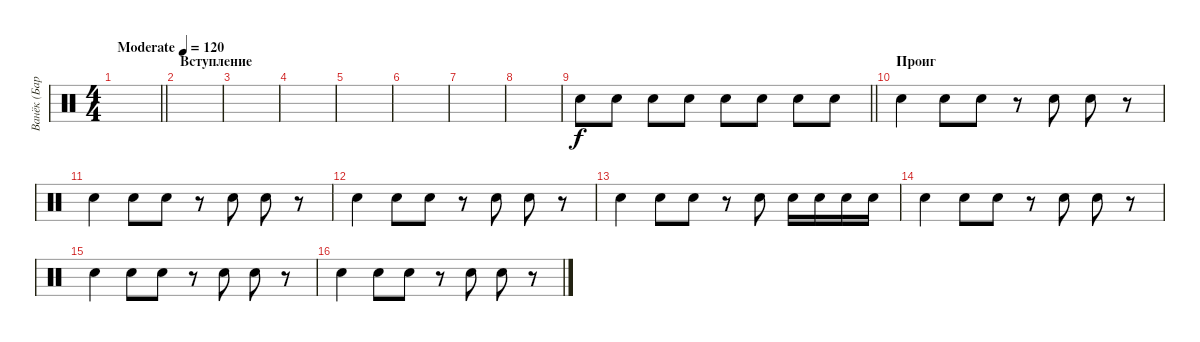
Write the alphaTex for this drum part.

\track ("Ванёк (Барабанщик)" "Ванёк (Бар") {instrument percussion}
\staff {score}
\articulation defaults
\ts (4 4)
\tempo (120 "Moderate")
\clef neutral
\barLineRight lightlight
\ks c
|
\section ("" "Вступление")
|
|
|
|
|
|
|
\barLineRight lightlight "Electric Snare (hit)".8{volume 12} "Electric Snare (hit)".8 "Electric Snare (hit)".8 "Electric Snare (hit)".8 "Electric Snare (hit)".8 "Electric Snare (hit)".8 "Electric Snare (hit)".8 "Electric Snare (hit)".8
|
\section ("" "Проиг")
"Electric Snare (hit)".4 "Electric Snare (hit)".8 "Electric Snare (hit)".8 r.8 "Electric Snare (hit)".8 "Electric Snare (hit)".8 r.8 |
"Electric Snare (hit)".4 "Electric Snare (hit)".8 "Electric Snare (hit)".8 r.8 "Electric Snare (hit)".8 "Electric Snare (hit)".8 r.8 |
"Electric Snare (hit)".4 "Electric Snare (hit)".8 "Electric Snare (hit)".8 r.8 "Electric Snare (hit)".8 "Electric Snare (hit)".8 r.8 |
"Electric Snare (hit)".4 "Electric Snare (hit)".8 "Electric Snare (hit)".8 r.8 "Electric Snare (hit)".8 "Electric Snare (hit)".16 "Electric Snare (hit)".16 "Electric Snare (hit)".16 "Electric Snare (hit)".16 |
"Electric Snare (hit)".4 "Electric Snare (hit)".8 "Electric Snare (hit)".8 r.8 "Electric Snare (hit)".8 "Electric Snare (hit)".8 r.8 |
"Electric Snare (hit)".4 "Electric Snare (hit)".8 "Electric Snare (hit)".8 r.8 "Electric Snare (hit)".8 "Electric Snare (hit)".8 r.8 |
"Electric Snare (hit)".4 "Electric Snare (hit)".8 "Electric Snare (hit)".8 r.8 "Electric Snare (hit)".8 "Electric Snare (hit)".8 r.8
